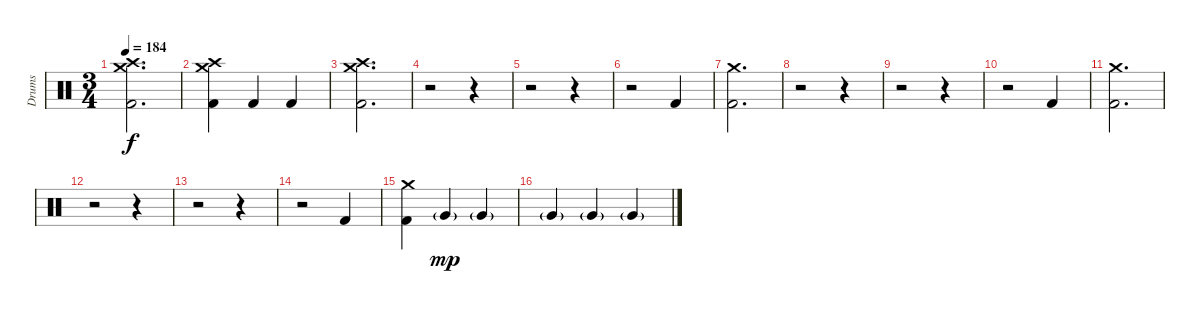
\track ("Drums" "Drums") {instrument percussion}
\staff {score}
\articulation defaults
\ts (3 4)
\tempo 184
\clef neutral
\ks c
("Crash medium (hit)" "Crash high (hit)" "Kick (hit) 2").2{d dy f} |
("Crash medium (hit)" "Crash high (hit)" "Kick (hit) 2").4 "Kick (hit) 2".4 "Kick (hit) 2".4 |
("Crash medium (hit)" "Crash high (hit)" "Kick (hit) 2").2{d} |
r.2 r.4 |
r.2 r.4 |
r.2 "Kick (hit) 2".4 |
("Crash medium (hit)" "Kick (hit) 2").2{d} |
r.2 r.4 |
r.2 r.4 |
r.2 "Kick (hit) 2".4 |
("Crash medium (hit)" "Kick (hit) 2").2{d} |
r.2 r.4 |
r.2 r.4 |
r.2 "Kick (hit) 2".4 |
("Crash medium (hit)" "Kick (hit) 2").4 "Very Low Tom (hit)"{g}.4{dy mp} "Very Low Tom (hit)"{g}.4 |
"Very Low Tom (hit)"{g}.4 "Very Low Tom (hit)"{g}.4 "Very Low Tom (hit)"{g}.4
